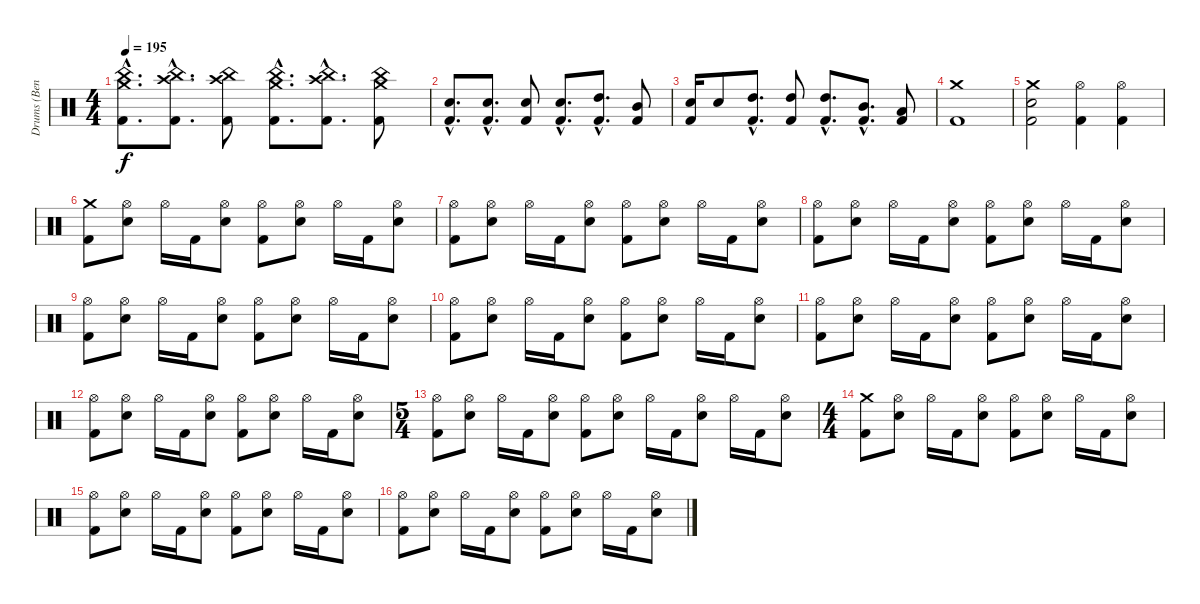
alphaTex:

\track ("Drums (Ben)" "Drums (Ben") {instrument percussion}
\staff {score}
\articulation defaults
\ts (4 4)
\tempo 195
\clef neutral
\ks c
("Crash medium (hit)"{hac} "China (hit)"{hac} "Kick (hit) 2"{hac}).8{d dy f} ("Crash high (hit)"{hac} "China (hit)"{hac} "Kick (hit) 2"{hac}).8{d} ("Crash high (hit)" "China (hit)" "Kick (hit) 2").8 ("Crash medium (hit)"{hac} "China (hit)"{hac} "Kick (hit) 2"{hac}).8{d} ("Crash high (hit)"{hac} "China (hit)"{hac} "Kick (hit) 2"{hac}).8{d} ("Crash medium (hit)" "China (hit)" "Kick (hit) 2").8 |
("Snare (hit) 2"{hac} "Kick (hit) 2"{hac}).8{d} ("Snare (hit) 2"{hac} "Kick (hit) 2"{hac}).8{d} ("Snare (hit) 2" "Kick (hit) 2").8 ("Snare (hit) 2"{hac} "Kick (hit) 2"{hac}).8{d} ("High Tom (hit)"{hac} "Kick (hit) 2"{hac}).8{d} ("Mid Tom (hit)" "Kick (hit) 2").8 |
("Snare (hit) 2" "Kick (hit) 2").16 "Snare (hit) 2".8 ("High Tom (hit)"{hac} "Kick (hit) 2"{hac}).8{d} ("High Tom (hit)" "Kick (hit) 2").8 ("High Tom (hit)"{hac} "Kick (hit) 2"{hac}).8{d} ("Mid Tom (hit)"{hac} "Kick (hit) 2"{hac}).8{d} ("Low Tom (hit)" "Kick (hit) 2").8 |
("Crash medium (hit)" "Kick (hit) 2").1 |
("Crash medium (hit)" "Snare (hit) 2" "Kick (hit) 2").2 ("Hi-Hat (open)" "Kick (hit) 2").4 ("Hi-Hat (open)" "Kick (hit) 2").4 |
("Crash medium (hit)" "Kick (hit) 2").8 ("Hi-Hat (open)" "Snare (hit) 2").8 "Hi-Hat (open)".16 "Kick (hit) 2".16 ("Hi-Hat (open)" "Snare (hit) 2").8 ("Hi-Hat (open)" "Kick (hit) 2").8 ("Hi-Hat (open)" "Snare (hit) 2").8 "Hi-Hat (open)".16 "Kick (hit) 2".16 ("Hi-Hat (open)" "Snare (hit) 2").8 |
("Hi-Hat (open)" "Kick (hit) 2").8 ("Hi-Hat (open)" "Snare (hit) 2").8 "Hi-Hat (open)".16 "Kick (hit) 2".16 ("Hi-Hat (open)" "Snare (hit) 2").8 ("Hi-Hat (open)" "Kick (hit) 2").8 ("Hi-Hat (open)" "Snare (hit) 2").8 "Hi-Hat (open)".16 "Kick (hit) 2".16 ("Hi-Hat (open)" "Snare (hit) 2").8 |
("Hi-Hat (open)" "Kick (hit) 2").8 ("Hi-Hat (open)" "Snare (hit) 2").8 "Hi-Hat (open)".16 "Kick (hit) 2".16 ("Hi-Hat (open)" "Snare (hit) 2").8 ("Hi-Hat (open)" "Kick (hit) 2").8 ("Hi-Hat (open)" "Snare (hit) 2").8 "Hi-Hat (open)".16 "Kick (hit) 2".16 ("Hi-Hat (open)" "Snare (hit) 2").8 |
("Hi-Hat (open)" "Kick (hit) 2").8 ("Hi-Hat (open)" "Snare (hit) 2").8 "Hi-Hat (open)".16 "Kick (hit) 2".16 ("Hi-Hat (open)" "Snare (hit) 2").8 ("Hi-Hat (open)" "Kick (hit) 2").8 ("Hi-Hat (open)" "Snare (hit) 2").8 "Hi-Hat (open)".16 "Kick (hit) 2".16 ("Hi-Hat (open)" "Snare (hit) 2").8 |
("Hi-Hat (open)" "Kick (hit) 2").8 ("Hi-Hat (open)" "Snare (hit) 2").8 "Hi-Hat (open)".16 "Kick (hit) 2".16 ("Hi-Hat (open)" "Snare (hit) 2").8 ("Hi-Hat (open)" "Kick (hit) 2").8 ("Hi-Hat (open)" "Snare (hit) 2").8 "Hi-Hat (open)".16 "Kick (hit) 2".16 ("Hi-Hat (open)" "Snare (hit) 2").8 |
("Hi-Hat (open)" "Kick (hit) 2").8 ("Hi-Hat (open)" "Snare (hit) 2").8 "Hi-Hat (open)".16 "Kick (hit) 2".16 ("Hi-Hat (open)" "Snare (hit) 2").8 ("Hi-Hat (open)" "Kick (hit) 2").8 ("Hi-Hat (open)" "Snare (hit) 2").8 "Hi-Hat (open)".16 "Kick (hit) 2".16 ("Hi-Hat (open)" "Snare (hit) 2").8 |
("Hi-Hat (open)" "Kick (hit) 2").8 ("Hi-Hat (open)" "Snare (hit) 2").8 "Hi-Hat (open)".16 "Kick (hit) 2".16 ("Hi-Hat (open)" "Snare (hit) 2").8 ("Hi-Hat (open)" "Kick (hit) 2").8 ("Hi-Hat (open)" "Snare (hit) 2").8 "Hi-Hat (open)".16 "Kick (hit) 2".16 ("Hi-Hat (open)" "Snare (hit) 2").8 |
\ts (5 4)
("Hi-Hat (open)" "Kick (hit) 2").8 ("Hi-Hat (open)" "Snare (hit) 2").8 "Hi-Hat (open)".16 "Kick (hit) 2".16 ("Hi-Hat (open)" "Snare (hit) 2").8 ("Hi-Hat (open)" "Kick (hit) 2").8 ("Hi-Hat (open)" "Snare (hit) 2").8 "Hi-Hat (open)".16 "Kick (hit) 2".16 ("Hi-Hat (open)" "Snare (hit) 2").8 "Hi-Hat (open)".16 "Kick (hit) 2".16 ("Hi-Hat (open)" "Snare (hit) 2").8 |
\ts (4 4)
("Crash medium (hit)" "Kick (hit) 2").8 ("Hi-Hat (open)" "Snare (hit) 2").8 "Hi-Hat (open)".16 "Kick (hit) 2".16 ("Hi-Hat (open)" "Snare (hit) 2").8 ("Hi-Hat (open)" "Kick (hit) 2").8 ("Hi-Hat (open)" "Snare (hit) 2").8 "Hi-Hat (open)".16 "Kick (hit) 2".16 ("Hi-Hat (open)" "Snare (hit) 2").8 |
("Hi-Hat (open)" "Kick (hit) 2").8 ("Hi-Hat (open)" "Snare (hit) 2").8 "Hi-Hat (open)".16 "Kick (hit) 2".16 ("Hi-Hat (open)" "Snare (hit) 2").8 ("Hi-Hat (open)" "Kick (hit) 2").8 ("Hi-Hat (open)" "Snare (hit) 2").8 "Hi-Hat (open)".16 "Kick (hit) 2".16 ("Hi-Hat (open)" "Snare (hit) 2").8 |
("Hi-Hat (open)" "Kick (hit) 2").8 ("Hi-Hat (open)" "Snare (hit) 2").8 "Hi-Hat (open)".16 "Kick (hit) 2".16 ("Hi-Hat (open)" "Snare (hit) 2").8 ("Hi-Hat (open)" "Kick (hit) 2").8 ("Hi-Hat (open)" "Snare (hit) 2").8 "Hi-Hat (open)".16 "Kick (hit) 2".16 ("Hi-Hat (open)" "Snare (hit) 2").8
